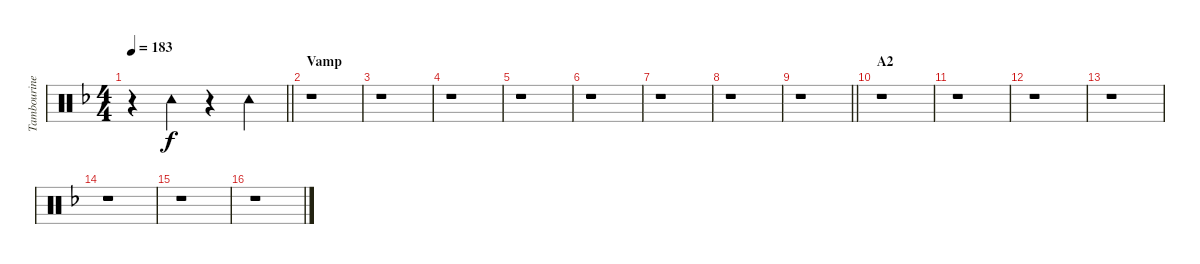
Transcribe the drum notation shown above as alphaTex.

\track ("Tambourine" "Tambourine") {instrument percussion}
\staff {score}
\articulation defaults
\ts (4 4)
\tempo 183
\clef neutral
\barLineRight lightlight
\ks f
r.4{dy f} "Tambourine (hit)".4 r.4 "Tambourine (hit)".4 |
\section ("" "Vamp")
r.1 |
r.1 |
r.1 |
r.1 |
r.1 |
r.1 |
r.1 |
\barLineRight lightlight
r.1 |
\section ("" "A2")
r.1 |
r.1 |
r.1 |
r.1 |
r.1 |
r.1 |
r.1
